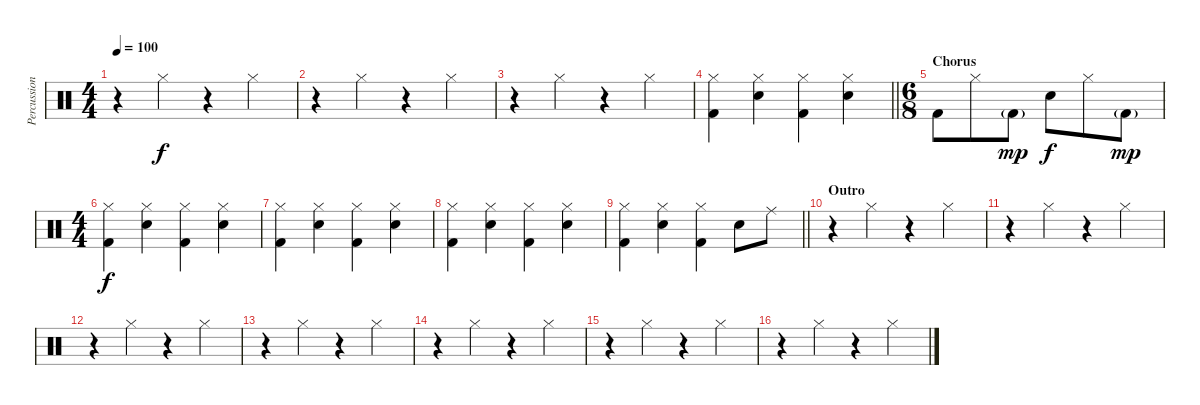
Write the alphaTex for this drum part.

\track ("Percussion" "Percussion") {instrument percussion}
\staff {score}
\articulation defaults
\ts (4 4)
\tempo 100
\clef neutral
\ks c
r.4{dy f} "Hi-Hat (closed)".4 r.4 "Hi-Hat (closed)".4 |
r.4 "Hi-Hat (closed)".4 r.4 "Hi-Hat (closed)".4 |
r.4 "Hi-Hat (closed)".4 r.4 "Hi-Hat (closed)".4 |
\barLineRight lightlight
("Hi-Hat (closed)" "Kick (hit) 2").4{volume 5} ("Hi-Hat (closed)" "Snare (hit) 2").4 ("Hi-Hat (closed)" "Kick (hit) 2").4 ("Hi-Hat (closed)" "Snare (hit) 2").4 |
\ts (6 8)
\section ("" "Chorus")
"Kick (hit) 2".8 "Hi-Hat (closed)".8 "Kick (hit) 2"{g}.8{dy mp} "Snare (hit) 2".8{dy f} "Hi-Hat (closed)".8 "Kick (hit) 2"{g}.8{dy mp} |
\ts (4 4)
("Hi-Hat (closed)" "Kick (hit) 2").4{dy f} ("Hi-Hat (closed)" "Snare (hit) 2").4 ("Hi-Hat (closed)" "Kick (hit) 2").4 ("Hi-Hat (closed)" "Snare (hit) 2").4 |
("Hi-Hat (closed)" "Kick (hit) 2").4 ("Hi-Hat (closed)" "Snare (hit) 2").4 ("Hi-Hat (closed)" "Kick (hit) 2").4 ("Hi-Hat (closed)" "Snare (hit) 2").4 |
("Hi-Hat (closed)" "Kick (hit) 2").4 ("Hi-Hat (closed)" "Snare (hit) 2").4 ("Hi-Hat (closed)" "Kick (hit) 2").4 ("Hi-Hat (closed)" "Snare (hit) 2").4 |
\barLineRight lightlight
("Hi-Hat (closed)" "Kick (hit) 2").4 ("Hi-Hat (closed)" "Snare (hit) 2").4 ("Hi-Hat (closed)" "Kick (hit) 2").4 "Snare (hit) 2".8 "Ride (middle)".8 |
\section ("" "Outro")
r.4 "Hi-Hat (closed)".4{volume 10} r.4 "Hi-Hat (closed)".4 |
r.4 "Hi-Hat (closed)".4 r.4 "Hi-Hat (closed)".4 |
r.4 "Hi-Hat (closed)".4 r.4 "Hi-Hat (closed)".4 |
r.4 "Hi-Hat (closed)".4 r.4 "Hi-Hat (closed)".4 |
r.4 "Hi-Hat (closed)".4 r.4 "Hi-Hat (closed)".4 |
r.4 "Hi-Hat (closed)".4 r.4 "Hi-Hat (closed)".4 |
r.4 "Hi-Hat (closed)".4 r.4 "Hi-Hat (closed)".4
